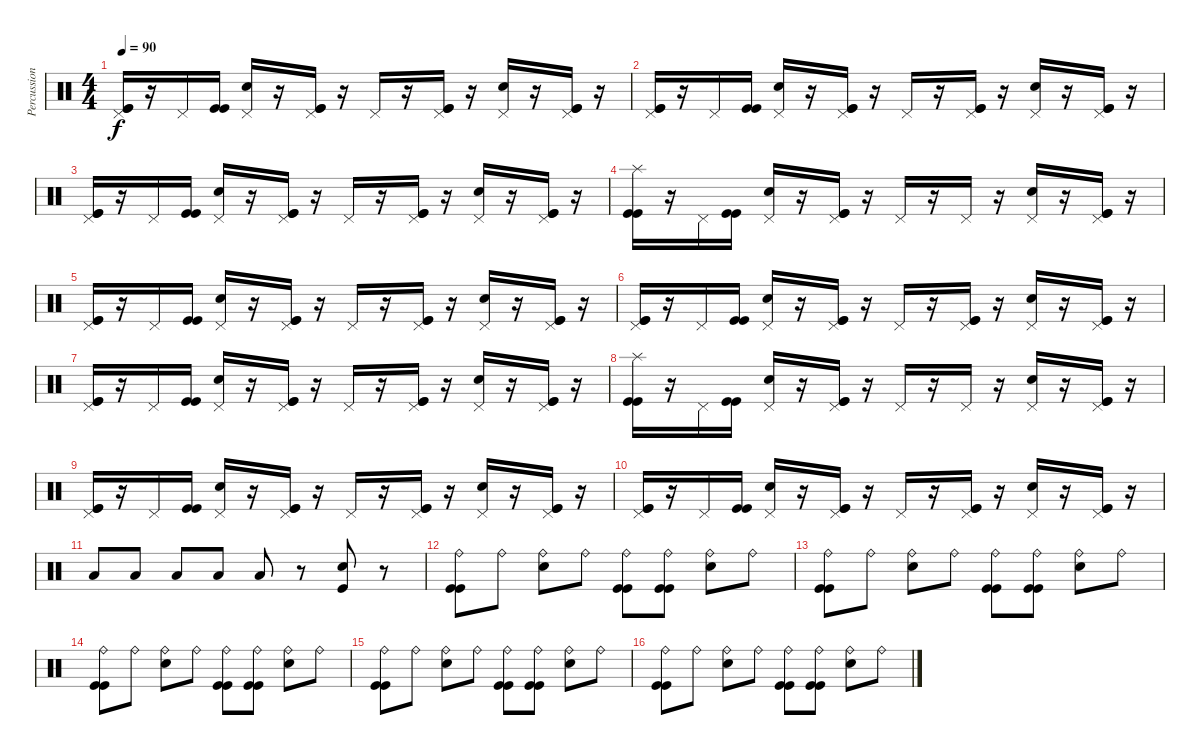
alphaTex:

\track ("Percussion" "Percussion") {instrument percussion}
\staff {score}
\articulation defaults
\ts (4 4)
\tempo 90
\clef neutral
\ks c
("Pedal Hi-Hat (hit)" "Kick (hit)" "Kick (hit)").16{dy f} r.16 "Pedal Hi-Hat (hit)".16 ("Kick (hit)" "Kick (hit)").16 ("Pedal Hi-Hat (hit)" "Electric Snare (hit)").16 r.16 ("Pedal Hi-Hat (hit)" "Kick (hit)" "Kick (hit)").16 r.16 "Pedal Hi-Hat (hit)".16 r.16 ("Pedal Hi-Hat (hit)" "Kick (hit)" "Kick (hit)").16 r.16 ("Pedal Hi-Hat (hit)" "Electric Snare (hit)").16 r.16 ("Pedal Hi-Hat (hit)" "Kick (hit)" "Kick (hit)").16 r.16 |
("Pedal Hi-Hat (hit)" "Kick (hit)" "Kick (hit)").16 r.16 "Pedal Hi-Hat (hit)".16 ("Kick (hit)" "Kick (hit)").16 ("Pedal Hi-Hat (hit)" "Electric Snare (hit)").16 r.16 ("Pedal Hi-Hat (hit)" "Kick (hit)" "Kick (hit)").16 r.16 "Pedal Hi-Hat (hit)".16 r.16 ("Pedal Hi-Hat (hit)" "Kick (hit)" "Kick (hit)").16 r.16 ("Pedal Hi-Hat (hit)" "Electric Snare (hit)").16 r.16 ("Pedal Hi-Hat (hit)" "Kick (hit)" "Kick (hit)").16 r.16 |
("Pedal Hi-Hat (hit)" "Kick (hit)" "Kick (hit)").16 r.16 "Pedal Hi-Hat (hit)".16 ("Kick (hit)" "Kick (hit)").16 ("Pedal Hi-Hat (hit)" "Electric Snare (hit)").16 r.16 ("Pedal Hi-Hat (hit)" "Kick (hit)" "Kick (hit)").16 r.16 "Pedal Hi-Hat (hit)".16 r.16 ("Pedal Hi-Hat (hit)" "Kick (hit)" "Kick (hit)").16 r.16 ("Pedal Hi-Hat (hit)" "Electric Snare (hit)").16 r.16 ("Pedal Hi-Hat (hit)" "Kick (hit)" "Kick (hit)").16 r.16 |
("Splash (hit)" "Kick (hit)" "Kick (hit)").16 r.16 "Pedal Hi-Hat (hit)".16 ("Kick (hit)" "Kick (hit)").16 ("Pedal Hi-Hat (hit)" "Electric Snare (hit)").16 r.16 ("Pedal Hi-Hat (hit)" "Kick (hit)" "Kick (hit)").16 r.16 "Pedal Hi-Hat (hit)".16 r.16 "Pedal Hi-Hat (hit)".16 r.16 ("Pedal Hi-Hat (hit)" "Electric Snare (hit)").16 r.16 ("Pedal Hi-Hat (hit)" "Kick (hit)" "Kick (hit)").16 r.16 |
("Pedal Hi-Hat (hit)" "Kick (hit)" "Kick (hit)").16 r.16 "Pedal Hi-Hat (hit)".16 ("Kick (hit)" "Kick (hit)").16 ("Pedal Hi-Hat (hit)" "Electric Snare (hit)").16 r.16 ("Pedal Hi-Hat (hit)" "Kick (hit)" "Kick (hit)").16 r.16 "Pedal Hi-Hat (hit)".16 r.16 ("Pedal Hi-Hat (hit)" "Kick (hit)" "Kick (hit)").16 r.16 ("Pedal Hi-Hat (hit)" "Electric Snare (hit)").16 r.16 ("Pedal Hi-Hat (hit)" "Kick (hit)" "Kick (hit)").16 r.16 |
("Pedal Hi-Hat (hit)" "Kick (hit)" "Kick (hit)").16 r.16 "Pedal Hi-Hat (hit)".16 ("Kick (hit)" "Kick (hit)").16 ("Pedal Hi-Hat (hit)" "Electric Snare (hit)").16 r.16 ("Pedal Hi-Hat (hit)" "Kick (hit)" "Kick (hit)").16 r.16 "Pedal Hi-Hat (hit)".16 r.16 ("Pedal Hi-Hat (hit)" "Kick (hit)" "Kick (hit)").16 r.16 ("Pedal Hi-Hat (hit)" "Electric Snare (hit)").16 r.16 ("Pedal Hi-Hat (hit)" "Kick (hit)" "Kick (hit)").16 r.16 |
("Pedal Hi-Hat (hit)" "Kick (hit)" "Kick (hit)").16 r.16 "Pedal Hi-Hat (hit)".16 ("Kick (hit)" "Kick (hit)").16 ("Pedal Hi-Hat (hit)" "Electric Snare (hit)").16 r.16 ("Pedal Hi-Hat (hit)" "Kick (hit)" "Kick (hit)").16 r.16 "Pedal Hi-Hat (hit)".16 r.16 ("Pedal Hi-Hat (hit)" "Kick (hit)" "Kick (hit)").16 r.16 ("Pedal Hi-Hat (hit)" "Electric Snare (hit)").16 r.16 ("Pedal Hi-Hat (hit)" "Kick (hit)" "Kick (hit)").16 r.16 |
("Splash (hit)" "Kick (hit)" "Kick (hit)").16 r.16 "Pedal Hi-Hat (hit)".16 ("Kick (hit)" "Kick (hit)").16 ("Pedal Hi-Hat (hit)" "Electric Snare (hit)").16 r.16 ("Pedal Hi-Hat (hit)" "Kick (hit)" "Kick (hit)").16 r.16 "Pedal Hi-Hat (hit)".16 r.16 "Pedal Hi-Hat (hit)".16 r.16 ("Pedal Hi-Hat (hit)" "Electric Snare (hit)").16 r.16 ("Pedal Hi-Hat (hit)" "Kick (hit)" "Kick (hit)").16 r.16 |
("Pedal Hi-Hat (hit)" "Kick (hit)" "Kick (hit)").16 r.16 "Pedal Hi-Hat (hit)".16 ("Kick (hit)" "Kick (hit)").16 ("Pedal Hi-Hat (hit)" "Electric Snare (hit)").16 r.16 ("Pedal Hi-Hat (hit)" "Kick (hit)" "Kick (hit)").16 r.16 "Pedal Hi-Hat (hit)".16 r.16 ("Pedal Hi-Hat (hit)" "Kick (hit)" "Kick (hit)").16 r.16 ("Pedal Hi-Hat (hit)" "Electric Snare (hit)").16 r.16 ("Pedal Hi-Hat (hit)" "Kick (hit)" "Kick (hit)").16 r.16 |
("Pedal Hi-Hat (hit)" "Kick (hit)" "Kick (hit)").16 r.16 "Pedal Hi-Hat (hit)".16 ("Kick (hit)" "Kick (hit)").16 ("Pedal Hi-Hat (hit)" "Electric Snare (hit)").16 r.16 ("Pedal Hi-Hat (hit)" "Kick (hit)" "Kick (hit)").16 r.16 "Pedal Hi-Hat (hit)".16 r.16 ("Pedal Hi-Hat (hit)" "Kick (hit)" "Kick (hit)").16 r.16 ("Pedal Hi-Hat (hit)" "Electric Snare (hit)").16 r.16 ("Pedal Hi-Hat (hit)" "Kick (hit)" "Kick (hit)").16 r.16 |
"Low Tom (hit)".8 "Low Tom (hit)".8 "Low Tom (hit)".8 "Low Tom (hit)".8 "Low Tom (hit)".8 r.8 ("Electric Snare (hit)" "Kick (hit)").8 r.8 |
("Ride (bell)" "Kick (hit)" "Kick (hit)").8 "Ride (bell)".8 ("Ride (bell)" "Electric Snare (hit)").8 "Ride (bell)".8 ("Ride (bell)" "Kick (hit)" "Kick (hit)").8 ("Ride (bell)" "Kick (hit)" "Kick (hit)").8 ("Ride (bell)" "Electric Snare (hit)").8 "Ride (bell)".8 |
("Ride (bell)" "Kick (hit)" "Kick (hit)").8 "Ride (bell)".8 ("Ride (bell)" "Electric Snare (hit)").8 "Ride (bell)".8 ("Ride (bell)" "Kick (hit)" "Kick (hit)").8 ("Ride (bell)" "Kick (hit)" "Kick (hit)").8 ("Ride (bell)" "Electric Snare (hit)").8 "Ride (bell)".8 |
("Ride (bell)" "Kick (hit)" "Kick (hit)").8 "Ride (bell)".8 ("Ride (bell)" "Electric Snare (hit)").8 "Ride (bell)".8 ("Ride (bell)" "Kick (hit)" "Kick (hit)").8 ("Ride (bell)" "Kick (hit)" "Kick (hit)").8 ("Ride (bell)" "Electric Snare (hit)").8 "Ride (bell)".8 |
("Ride (bell)" "Kick (hit)" "Kick (hit)").8 "Ride (bell)".8 ("Ride (bell)" "Electric Snare (hit)").8 "Ride (bell)".8 ("Ride (bell)" "Kick (hit)" "Kick (hit)").8 ("Ride (bell)" "Kick (hit)" "Kick (hit)").8 ("Ride (bell)" "Electric Snare (hit)").8 "Ride (bell)".8 |
("Ride (bell)" "Kick (hit)" "Kick (hit)").8 "Ride (bell)".8 ("Ride (bell)" "Electric Snare (hit)").8 "Ride (bell)".8 ("Ride (bell)" "Kick (hit)" "Kick (hit)").8 ("Ride (bell)" "Kick (hit)" "Kick (hit)").8 ("Ride (bell)" "Electric Snare (hit)").8 "Ride (bell)".8
